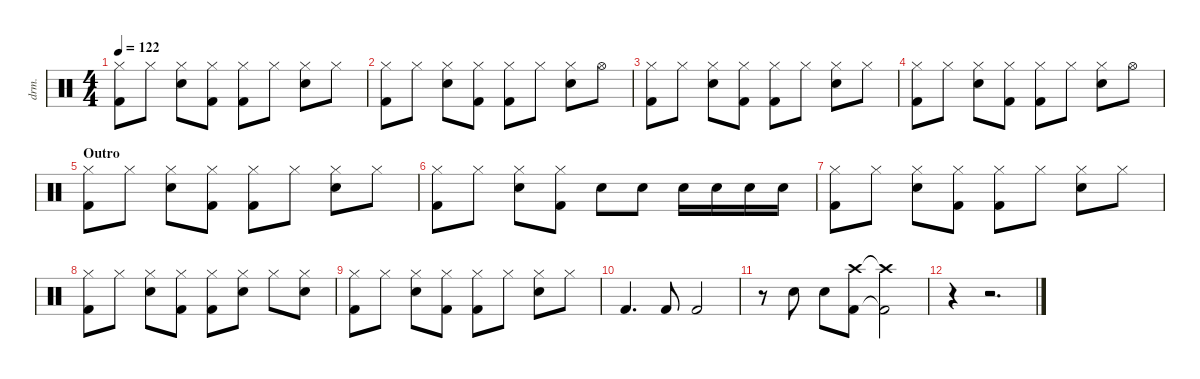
\defaultSystemsLayout 4
\hideDynamics
\bracketExtendMode nobrackets
\track ("Drumkit" "drm.") {defaultSystemsLayout 4 instrument percussion}
\staff {score}
\articulation defaults
\ts (4 4)
\tempo 122
\clef neutral
\ks c
("Hi-Hat (closed)" "Kick (hit) 2").8{dy f} "Hi-Hat (closed)".8 ("Hi-Hat (closed)" "Snare (hit) 2").8 ("Hi-Hat (closed)" "Kick (hit) 2").8 ("Hi-Hat (closed)" "Kick (hit) 2").8 "Hi-Hat (closed)".8 ("Hi-Hat (closed)" "Snare (hit) 2").8 "Hi-Hat (closed)".8 |
("Hi-Hat (closed)" "Kick (hit) 2").8 "Hi-Hat (closed)".8 ("Hi-Hat (closed)" "Snare (hit) 2").8 ("Hi-Hat (closed)" "Kick (hit) 2").8 ("Hi-Hat (closed)" "Kick (hit) 2").8 "Hi-Hat (closed)".8 ("Hi-Hat (closed)" "Snare (hit) 2").8 "Hi-Hat (open)".8 |
("Hi-Hat (closed)" "Kick (hit) 2").8 "Hi-Hat (closed)".8 ("Hi-Hat (closed)" "Snare (hit) 2").8 ("Hi-Hat (closed)" "Kick (hit) 2").8 ("Hi-Hat (closed)" "Kick (hit) 2").8 "Hi-Hat (closed)".8 ("Hi-Hat (closed)" "Snare (hit) 2").8 "Hi-Hat (closed)".8 |
("Hi-Hat (closed)" "Kick (hit) 2").8 "Hi-Hat (closed)".8 ("Hi-Hat (closed)" "Snare (hit) 2").8 ("Hi-Hat (closed)" "Kick (hit) 2").8 ("Hi-Hat (closed)" "Kick (hit) 2").8 "Hi-Hat (closed)".8 ("Hi-Hat (closed)" "Snare (hit) 2").8 "Hi-Hat (open)".8 |
\section ("" "Outro")
("Hi-Hat (closed)" "Kick (hit) 2").8 "Hi-Hat (closed)".8 ("Hi-Hat (closed)" "Snare (hit) 2").8 ("Hi-Hat (closed)" "Kick (hit) 2").8 ("Hi-Hat (closed)" "Kick (hit) 2").8 "Hi-Hat (closed)".8 ("Hi-Hat (closed)" "Snare (hit) 2").8 "Hi-Hat (closed)".8 |
("Hi-Hat (closed)" "Kick (hit) 2").8 "Hi-Hat (closed)".8 ("Hi-Hat (closed)" "Snare (hit) 2").8 ("Hi-Hat (closed)" "Kick (hit) 2").8 "Snare (hit) 2".8 "Snare (hit) 2".8 "Snare (hit) 2".16 "Snare (hit) 2".16 "Snare (hit) 2".16 "Snare (hit) 2".16 |
("Hi-Hat (closed)" "Kick (hit) 2").8 "Hi-Hat (closed)".8 ("Hi-Hat (closed)" "Snare (hit) 2").8 ("Hi-Hat (closed)" "Kick (hit) 2").8 ("Hi-Hat (closed)" "Kick (hit) 2").8 "Hi-Hat (closed)".8 ("Hi-Hat (closed)" "Snare (hit) 2").8 "Hi-Hat (closed)".8 |
("Hi-Hat (closed)" "Kick (hit) 2").8 "Hi-Hat (closed)".8 ("Hi-Hat (closed)" "Snare (hit) 2").8 ("Hi-Hat (closed)" "Kick (hit) 2").8 ("Hi-Hat (closed)" "Kick (hit) 2").8 ("Hi-Hat (closed)" "Snare (hit) 2").8 "Hi-Hat (closed)".8 ("Hi-Hat (closed)" "Snare (hit) 2").8 |
("Hi-Hat (closed)" "Kick (hit) 2").8 "Hi-Hat (closed)".8 ("Hi-Hat (closed)" "Snare (hit) 2").8 ("Hi-Hat (closed)" "Kick (hit) 2").8 ("Hi-Hat (closed)" "Kick (hit) 2").8 "Hi-Hat (closed)".8 ("Hi-Hat (closed)" "Snare (hit) 2").8 "Hi-Hat (closed)".8 |
"Kick (hit) 2".4{d} "Kick (hit) 2".8 "Kick (hit) 2".2 |
r.8 "Snare (hit) 2".8 "Snare (hit) 2".8 ("Crash high (hit)" "Kick (hit) 2").8 ("Crash high (hit)"{t} "Kick (hit) 2"{t}).2 |
r.4 r.2{d}
